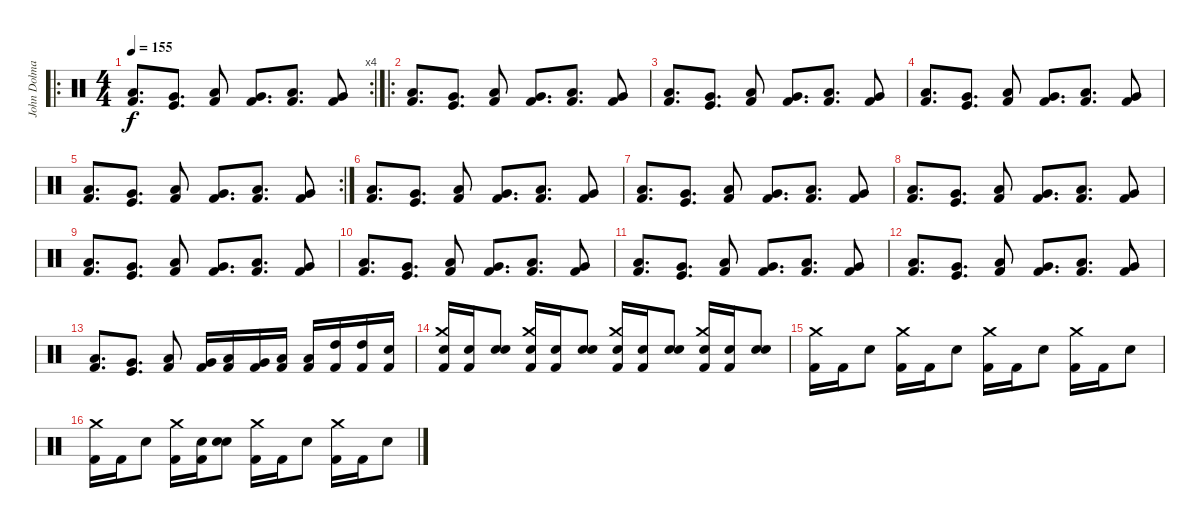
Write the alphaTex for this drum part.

\track ("John Dolmayan - Drums" "John Dolma") {instrument percussion}
\staff {score}
\articulation defaults
\ro
\rc 4
\ts (4 4)
\tempo 155
\clef neutral
\ks c
("Low Tom (hit)" "Kick (hit) 2").8{d dy f} ("Very Low Tom (hit)" "Kick (hit)").8{d} ("Low Tom (hit)" "Kick (hit) 2").8 ("Very Low Tom (hit)" "Kick (hit) 2").8{d} ("Low Tom (hit)" "Kick (hit) 2").8{d} ("Very Low Tom (hit)" "Kick (hit) 2").8 |
\ro
("Low Tom (hit)" "Kick (hit) 2").8{d} ("Very Low Tom (hit)" "Kick (hit)").8{d} ("Low Tom (hit)" "Kick (hit) 2").8 ("Very Low Tom (hit)" "Kick (hit) 2").8{d} ("Low Tom (hit)" "Kick (hit) 2").8{d} ("Very Low Tom (hit)" "Kick (hit) 2").8 |
("Low Tom (hit)" "Kick (hit) 2").8{d} ("Very Low Tom (hit)" "Kick (hit)").8{d} ("Low Tom (hit)" "Kick (hit) 2").8 ("Very Low Tom (hit)" "Kick (hit) 2").8{d} ("Low Tom (hit)" "Kick (hit) 2").8{d} ("Very Low Tom (hit)" "Kick (hit) 2").8 |
("Low Tom (hit)" "Kick (hit) 2").8{d} ("Very Low Tom (hit)" "Kick (hit)").8{d} ("Low Tom (hit)" "Kick (hit) 2").8 ("Very Low Tom (hit)" "Kick (hit) 2").8{d} ("Low Tom (hit)" "Kick (hit) 2").8{d} ("Very Low Tom (hit)" "Kick (hit) 2").8 |
\rc 2
("Low Tom (hit)" "Kick (hit) 2").8{d} ("Very Low Tom (hit)" "Kick (hit)").8{d} ("Low Tom (hit)" "Kick (hit) 2").8 ("Very Low Tom (hit)" "Kick (hit) 2").8{d} ("Low Tom (hit)" "Kick (hit) 2").8{d} ("Very Low Tom (hit)" "Kick (hit) 2").8 |
("Low Tom (hit)" "Kick (hit) 2").8{d} ("Very Low Tom (hit)" "Kick (hit)").8{d} ("Low Tom (hit)" "Kick (hit) 2").8 ("Very Low Tom (hit)" "Kick (hit) 2").8{d} ("Low Tom (hit)" "Kick (hit) 2").8{d} ("Very Low Tom (hit)" "Kick (hit) 2").8 |
("Low Tom (hit)" "Kick (hit) 2").8{d} ("Very Low Tom (hit)" "Kick (hit)").8{d} ("Low Tom (hit)" "Kick (hit) 2").8 ("Very Low Tom (hit)" "Kick (hit) 2").8{d} ("Low Tom (hit)" "Kick (hit) 2").8{d} ("Very Low Tom (hit)" "Kick (hit) 2").8 |
("Low Tom (hit)" "Kick (hit) 2").8{d} ("Very Low Tom (hit)" "Kick (hit)").8{d} ("Low Tom (hit)" "Kick (hit) 2").8 ("Very Low Tom (hit)" "Kick (hit) 2").8{d} ("Low Tom (hit)" "Kick (hit) 2").8{d} ("Very Low Tom (hit)" "Kick (hit) 2").8 |
("Low Tom (hit)" "Kick (hit) 2").8{d} ("Very Low Tom (hit)" "Kick (hit)").8{d} ("Low Tom (hit)" "Kick (hit) 2").8 ("Very Low Tom (hit)" "Kick (hit) 2").8{d} ("Low Tom (hit)" "Kick (hit) 2").8{d} ("Very Low Tom (hit)" "Kick (hit) 2").8 |
("Low Tom (hit)" "Kick (hit) 2").8{d} ("Very Low Tom (hit)" "Kick (hit)").8{d} ("Low Tom (hit)" "Kick (hit) 2").8 ("Very Low Tom (hit)" "Kick (hit) 2").8{d} ("Low Tom (hit)" "Kick (hit) 2").8{d} ("Very Low Tom (hit)" "Kick (hit) 2").8 |
("Low Tom (hit)" "Kick (hit) 2").8{d} ("Very Low Tom (hit)" "Kick (hit)").8{d} ("Low Tom (hit)" "Kick (hit) 2").8 ("Very Low Tom (hit)" "Kick (hit) 2").8{d} ("Low Tom (hit)" "Kick (hit) 2").8{d} ("Very Low Tom (hit)" "Kick (hit) 2").8 |
("Low Tom (hit)" "Kick (hit) 2").8{d} ("Very Low Tom (hit)" "Kick (hit)").8{d} ("Low Tom (hit)" "Kick (hit) 2").8 ("Very Low Tom (hit)" "Kick (hit) 2").8{d} ("Low Tom (hit)" "Kick (hit) 2").8{d} ("Very Low Tom (hit)" "Kick (hit) 2").8 |
("Low Tom (hit)" "Kick (hit) 2").8{d} ("Very Low Tom (hit)" "Kick (hit)").8{d} ("Low Tom (hit)" "Kick (hit) 2").8 ("Very Low Tom (hit)" "Kick (hit) 2").16 ("Low Tom (hit)" "Kick (hit) 2").16 ("Very Low Tom (hit)" "Kick (hit) 2").16 ("Kick (hit) 2" "Low Tom (hit)").16 ("Kick (hit) 2" "Low Tom (hit)").16 ("Kick (hit) 2" "High Tom (hit)").16 ("Kick (hit) 2" "High Tom (hit)").16 ("Kick (hit) 2" "Electric Snare (hit)").16 |
("Crash medium (hit)" "Snare (hit)" "Kick (hit) 2").16 ("Snare (hit)" "Kick (hit) 2").16 ("Snare (hit)" "Electric Snare (hit)").8 ("Crash medium (hit)" "Snare (hit)" "Kick (hit) 2").16 ("Snare (hit)" "Kick (hit) 2").16 ("Snare (hit)" "Electric Snare (hit)").8 ("Crash medium (hit)" "Snare (hit)" "Kick (hit) 2").16 ("Snare (hit)" "Kick (hit) 2").16 ("Snare (hit)" "Electric Snare (hit)").8 ("Crash medium (hit)" "Snare (hit)" "Kick (hit) 2").16 ("Snare (hit)" "Kick (hit) 2").16 ("Snare (hit)" "Electric Snare (hit)").8 |
("Crash medium (hit)" "Kick (hit) 2").16 "Kick (hit) 2".16 "Electric Snare (hit)".8 ("Crash medium (hit)" "Kick (hit) 2").16 "Kick (hit) 2".16 "Electric Snare (hit)".8 ("Crash medium (hit)" "Kick (hit) 2").16 "Kick (hit) 2".16 "Electric Snare (hit)".8 ("Crash medium (hit)" "Kick (hit) 2").16 "Kick (hit) 2".16 "Electric Snare (hit)".8 |
("Crash medium (hit)" "Kick (hit) 2").16 "Kick (hit) 2".16 "Electric Snare (hit)".8 ("Crash medium (hit)" "Kick (hit) 2").16 ("Snare (hit)" "Kick (hit) 2").16 ("Snare (hit)" "Electric Snare (hit)").8 ("Crash medium (hit)" "Kick (hit) 2").16 "Kick (hit) 2".16 "Electric Snare (hit)".8 ("Crash medium (hit)" "Kick (hit) 2").16 "Kick (hit) 2".16 "Electric Snare (hit)".8
